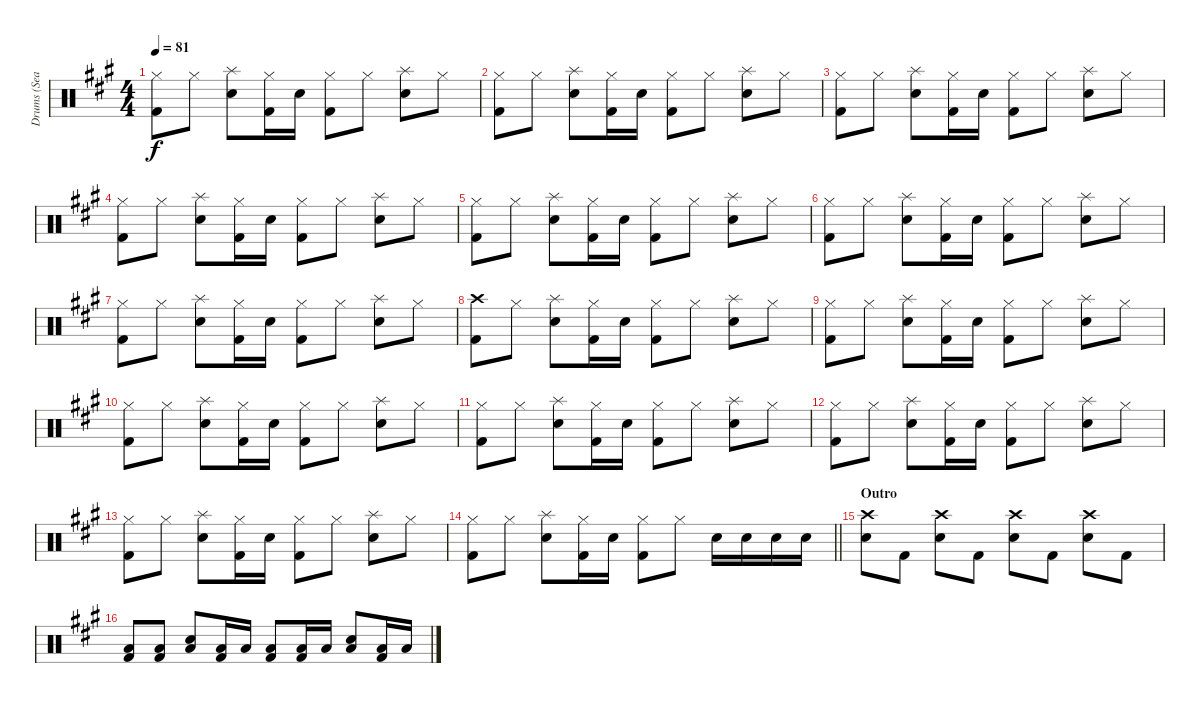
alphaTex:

\track ("Drums (Sean)" "Drums (Sea") {instrument percussion}
\staff {score}
\articulation defaults
\ts (4 4)
\tempo 81
\clef neutral
\ks f#minor
("Hi-Hat (closed)" "Kick (hit) 2").8{dy f} "Hi-Hat (closed)".8 ("Splash (hit)" "Snare (hit) 2").8 ("Hi-Hat (closed)" "Kick (hit) 2").16 "Snare (hit) 2".16 ("Hi-Hat (closed)" "Kick (hit) 2").8 "Hi-Hat (closed)".8 ("Splash (hit)" "Snare (hit) 2").8 "Hi-Hat (closed)".8 |
("Hi-Hat (closed)" "Kick (hit) 2").8 "Hi-Hat (closed)".8 ("Splash (hit)" "Snare (hit) 2").8 ("Hi-Hat (closed)" "Kick (hit) 2").16 "Snare (hit) 2".16 ("Hi-Hat (closed)" "Kick (hit) 2").8 "Hi-Hat (closed)".8 ("Splash (hit)" "Snare (hit) 2").8 "Hi-Hat (closed)".8 |
("Hi-Hat (closed)" "Kick (hit) 2").8 "Hi-Hat (closed)".8 ("Splash (hit)" "Snare (hit) 2").8 ("Hi-Hat (closed)" "Kick (hit) 2").16 "Snare (hit) 2".16 ("Hi-Hat (closed)" "Kick (hit) 2").8 "Hi-Hat (closed)".8 ("Splash (hit)" "Snare (hit) 2").8 "Hi-Hat (closed)".8 |
("Hi-Hat (closed)" "Kick (hit) 2").8 "Hi-Hat (closed)".8 ("Splash (hit)" "Snare (hit) 2").8 ("Hi-Hat (closed)" "Kick (hit) 2").16 "Snare (hit) 2".16 ("Hi-Hat (closed)" "Kick (hit) 2").8 "Hi-Hat (closed)".8 ("Splash (hit)" "Snare (hit) 2").8 "Hi-Hat (closed)".8 |
("Hi-Hat (closed)" "Kick (hit) 2").8 "Hi-Hat (closed)".8 ("Splash (hit)" "Snare (hit) 2").8 ("Hi-Hat (closed)" "Kick (hit) 2").16 "Snare (hit) 2".16 ("Hi-Hat (closed)" "Kick (hit) 2").8 "Hi-Hat (closed)".8 ("Splash (hit)" "Snare (hit) 2").8 "Hi-Hat (closed)".8 |
("Hi-Hat (closed)" "Kick (hit) 2").8 "Hi-Hat (closed)".8 ("Splash (hit)" "Snare (hit) 2").8 ("Hi-Hat (closed)" "Kick (hit) 2").16 "Snare (hit) 2".16 ("Hi-Hat (closed)" "Kick (hit) 2").8 "Hi-Hat (closed)".8 ("Splash (hit)" "Snare (hit) 2").8 "Hi-Hat (closed)".8 |
("Hi-Hat (closed)" "Kick (hit) 2").8 "Hi-Hat (closed)".8 ("Splash (hit)" "Snare (hit) 2").8 ("Hi-Hat (closed)" "Kick (hit) 2").16 "Snare (hit) 2".16 ("Hi-Hat (closed)" "Kick (hit) 2").8 "Hi-Hat (closed)".8 ("Splash (hit)" "Snare (hit) 2").8 "Hi-Hat (closed)".8 |
("Crash high (hit)" "Kick (hit) 2").8 "Hi-Hat (closed)".8 ("Splash (hit)" "Snare (hit) 2").8 ("Hi-Hat (closed)" "Kick (hit) 2").16 "Snare (hit) 2".16 ("Hi-Hat (closed)" "Kick (hit) 2").8 "Hi-Hat (closed)".8 ("Splash (hit)" "Snare (hit) 2").8 "Hi-Hat (closed)".8 |
("Hi-Hat (closed)" "Kick (hit) 2").8 "Hi-Hat (closed)".8 ("Splash (hit)" "Snare (hit) 2").8 ("Hi-Hat (closed)" "Kick (hit) 2").16 "Snare (hit) 2".16 ("Hi-Hat (closed)" "Kick (hit) 2").8 "Hi-Hat (closed)".8 ("Splash (hit)" "Snare (hit) 2").8 "Hi-Hat (closed)".8 |
("Hi-Hat (closed)" "Kick (hit) 2").8 "Hi-Hat (closed)".8 ("Splash (hit)" "Snare (hit) 2").8 ("Hi-Hat (closed)" "Kick (hit) 2").16 "Snare (hit) 2".16 ("Hi-Hat (closed)" "Kick (hit) 2").8 "Hi-Hat (closed)".8 ("Splash (hit)" "Snare (hit) 2").8 "Hi-Hat (closed)".8 |
("Hi-Hat (closed)" "Kick (hit) 2").8 "Hi-Hat (closed)".8 ("Splash (hit)" "Snare (hit) 2").8 ("Hi-Hat (closed)" "Kick (hit) 2").16 "Snare (hit) 2".16 ("Hi-Hat (closed)" "Kick (hit) 2").8 "Hi-Hat (closed)".8 ("Splash (hit)" "Snare (hit) 2").8 "Hi-Hat (closed)".8 |
("Hi-Hat (closed)" "Kick (hit) 2").8 "Hi-Hat (closed)".8 ("Splash (hit)" "Snare (hit) 2").8 ("Hi-Hat (closed)" "Kick (hit) 2").16 "Snare (hit) 2".16 ("Hi-Hat (closed)" "Kick (hit) 2").8 "Hi-Hat (closed)".8 ("Splash (hit)" "Snare (hit) 2").8 "Hi-Hat (closed)".8 |
("Hi-Hat (closed)" "Kick (hit) 2").8 "Hi-Hat (closed)".8 ("Splash (hit)" "Snare (hit) 2").8 ("Hi-Hat (closed)" "Kick (hit) 2").16 "Snare (hit) 2".16 ("Hi-Hat (closed)" "Kick (hit) 2").8 "Hi-Hat (closed)".8 ("Splash (hit)" "Snare (hit) 2").8 "Hi-Hat (closed)".8 |
\barLineRight lightlight
("Hi-Hat (closed)" "Kick (hit) 2").8 "Hi-Hat (closed)".8 ("Splash (hit)" "Snare (hit) 2").8 ("Hi-Hat (closed)" "Kick (hit) 2").16 "Snare (hit) 2".16 ("Hi-Hat (closed)" "Kick (hit) 2").8 "Hi-Hat (closed)".8 "Snare (hit) 2".16 "Snare (hit) 2".16 "Snare (hit) 2".16 "Snare (hit) 2".16 |
\section ("" "Outro")
("Crash high (hit)" "Snare (hit) 2").8 "Kick (hit) 2".8 ("Crash high (hit)" "Snare (hit) 2").8 "Kick (hit) 2".8 ("Crash high (hit)" "Snare (hit) 2").8 "Kick (hit) 2".8 ("Crash high (hit)" "Snare (hit) 2").8 "Kick (hit) 2".8 |
("Low Floor Tom (hit)" "Kick (hit) 2").8 ("Low Floor Tom (hit)" "Kick (hit) 2").8 ("Low Floor Tom (hit)" "Snare (hit) 2").8 ("Low Floor Tom (hit)" "Kick (hit) 2").16 "Low Floor Tom (hit)".16 ("Low Floor Tom (hit)" "Kick (hit) 2").8 ("Low Floor Tom (hit)" "Kick (hit) 2").16 "Low Floor Tom (hit)".16 ("Low Floor Tom (hit)" "Snare (hit) 2").8 ("Low Floor Tom (hit)" "Kick (hit) 2").16 "Low Floor Tom (hit)".16
